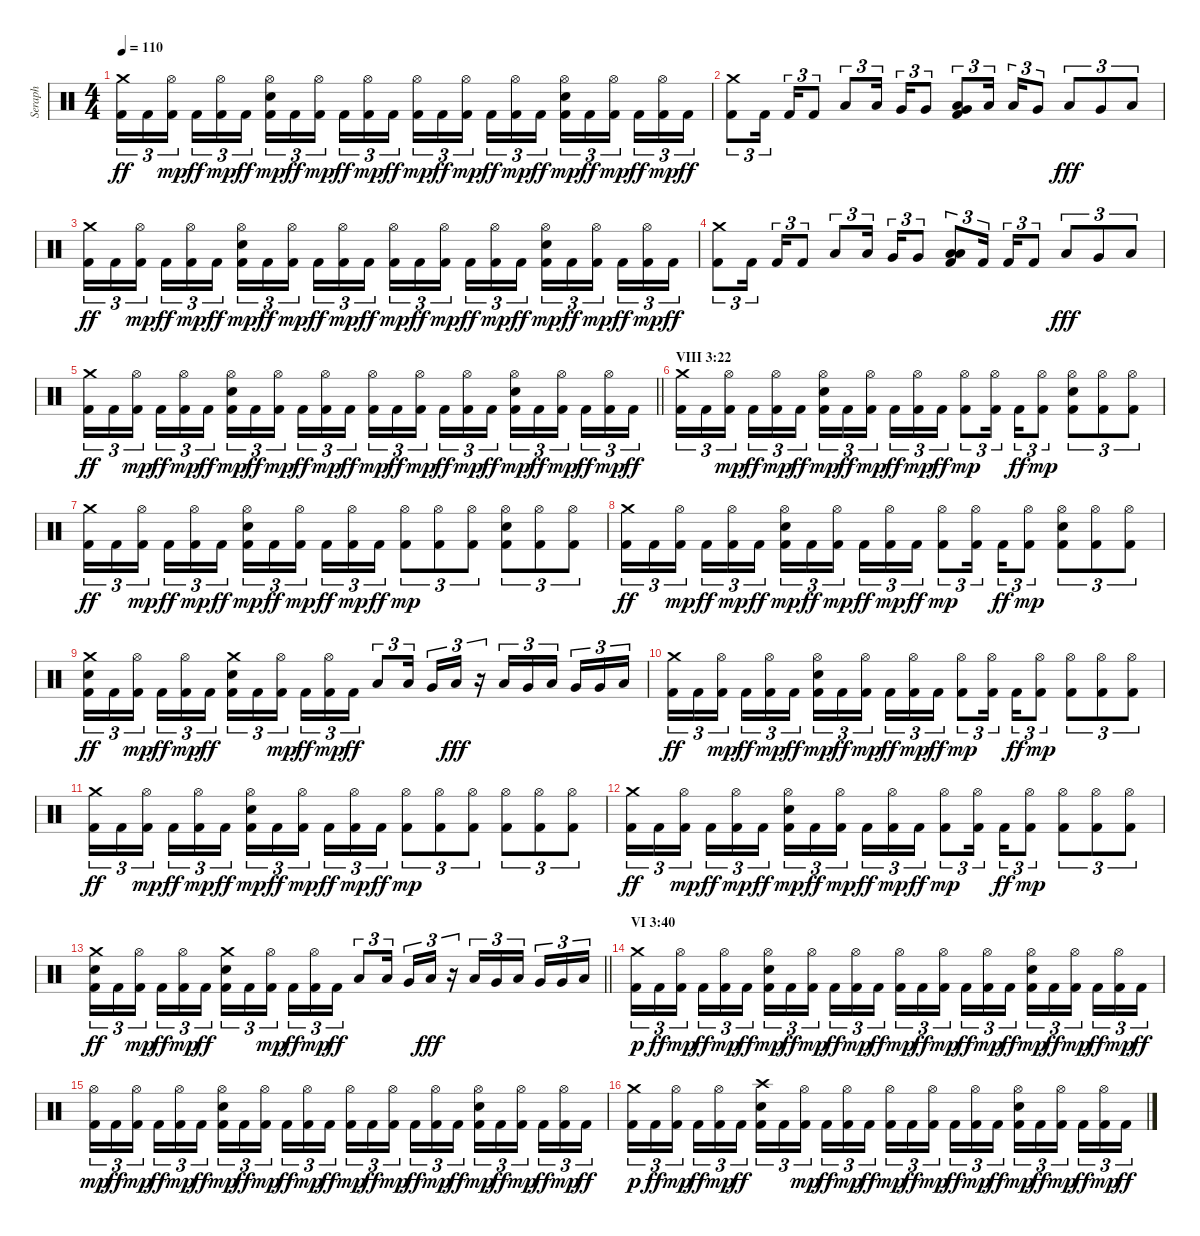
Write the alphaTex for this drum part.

\track ("Seraph" "Seraph") {instrument percussion}
\staff {score}
\articulation defaults
\ts (4 4)
\tempo 110
\clef neutral
\ks c
("Kick (hit) 2" "Crash medium (hit)").16{tu (3 2) dy ff} "Kick (hit) 2".16{tu (3 2)} ("Kick (hit) 2" "Hi-Hat (open)").16{tu (3 2) dy mp beam splitsecondary} "Kick (hit) 2".16{tu (3 2) dy ff} ("Kick (hit) 2" "Hi-Hat (open)").16{tu (3 2) dy mp} "Kick (hit) 2".16{tu (3 2) dy ff} ("Kick (hit) 2" "Electric Snare (hit)" "Hi-Hat (open)").16{tu (3 2) dy mp} "Kick (hit) 2".16{tu (3 2) dy ff} ("Kick (hit) 2" "Hi-Hat (open)").16{tu (3 2) dy mp beam splitsecondary} "Kick (hit) 2".16{tu (3 2) dy ff} ("Kick (hit) 2" "Hi-Hat (open)").16{tu (3 2) dy mp} "Kick (hit) 2".16{tu (3 2) dy ff} ("Kick (hit) 2" "Hi-Hat (open)").16{tu (3 2) dy mp} "Kick (hit) 2".16{tu (3 2) dy ff} ("Kick (hit) 2" "Hi-Hat (open)").16{tu (3 2) dy mp beam splitsecondary} "Kick (hit) 2".16{tu (3 2) dy ff} ("Kick (hit) 2" "Hi-Hat (open)").16{tu (3 2) dy mp} "Kick (hit) 2".16{tu (3 2) dy ff} ("Kick (hit) 2" "Electric Snare (hit)" "Hi-Hat (open)").16{tu (3 2) dy mp} "Kick (hit) 2".16{tu (3 2) dy ff} ("Kick (hit) 2" "Hi-Hat (open)").16{tu (3 2) dy mp beam splitsecondary} "Kick (hit) 2".16{tu (3 2) dy ff} ("Kick (hit) 2" "Hi-Hat (open)").16{tu (3 2) dy mp} "Kick (hit) 2".16{tu (3 2) dy ff} |
("Kick (hit) 2" "Crash medium (hit)").8{tu (3 2)} "Kick (hit) 2".16{tu (3 2) beam splitsecondary} "Kick (hit) 2".16{tu (3 2)} "Kick (hit) 2".8{tu (3 2)} "Low Tom (hit)".8{tu (3 2)} "Low Tom (hit)".16{tu (3 2) beam splitsecondary} "Very Low Tom (hit)".16{tu (3 2)} "Very Low Tom (hit)".8{tu (3 2)} ("Kick (hit) 2" "Very Low Tom (hit)" "Low Tom (hit)").8{tu (3 2)} "Low Tom (hit)".16{tu (3 2) beam splitsecondary} "Low Tom (hit)".16{tu (3 2)} "Very Low Tom (hit)".8{tu (3 2)} "Low Tom (hit)".8{tu (3 2) dy fff} "Very Low Tom (hit)".8{tu (3 2)} "Low Floor Tom (hit)".8{tu (3 2)} |
("Kick (hit) 2" "Crash medium (hit)").16{tu (3 2) dy ff} "Kick (hit) 2".16{tu (3 2)} ("Kick (hit) 2" "Hi-Hat (open)").16{tu (3 2) dy mp beam splitsecondary} "Kick (hit) 2".16{tu (3 2) dy ff} ("Kick (hit) 2" "Hi-Hat (open)").16{tu (3 2) dy mp} "Kick (hit) 2".16{tu (3 2) dy ff} ("Kick (hit) 2" "Electric Snare (hit)" "Hi-Hat (open)").16{tu (3 2) dy mp} "Kick (hit) 2".16{tu (3 2) dy ff} ("Kick (hit) 2" "Hi-Hat (open)").16{tu (3 2) dy mp beam splitsecondary} "Kick (hit) 2".16{tu (3 2) dy ff} ("Kick (hit) 2" "Hi-Hat (open)").16{tu (3 2) dy mp} "Kick (hit) 2".16{tu (3 2) dy ff} ("Kick (hit) 2" "Hi-Hat (open)").16{tu (3 2) dy mp} "Kick (hit) 2".16{tu (3 2) dy ff} ("Kick (hit) 2" "Hi-Hat (open)").16{tu (3 2) dy mp beam splitsecondary} "Kick (hit) 2".16{tu (3 2) dy ff} ("Kick (hit) 2" "Hi-Hat (open)").16{tu (3 2) dy mp} "Kick (hit) 2".16{tu (3 2) dy ff} ("Kick (hit) 2" "Electric Snare (hit)" "Hi-Hat (open)").16{tu (3 2) dy mp} "Kick (hit) 2".16{tu (3 2) dy ff} ("Kick (hit) 2" "Hi-Hat (open)").16{tu (3 2) dy mp beam splitsecondary} "Kick (hit) 2".16{tu (3 2) dy ff} ("Kick (hit) 2" "Hi-Hat (open)").16{tu (3 2) dy mp} "Kick (hit) 2".16{tu (3 2) dy ff} |
("Kick (hit) 2" "Crash medium (hit)").8{tu (3 2)} "Kick (hit) 2".16{tu (3 2) beam splitsecondary} "Kick (hit) 2".16{tu (3 2)} "Kick (hit) 2".8{tu (3 2)} "Low Tom (hit)".8{tu (3 2)} "Low Tom (hit)".16{tu (3 2) beam splitsecondary} "Very Low Tom (hit)".16{tu (3 2)} "Very Low Tom (hit)".8{tu (3 2)} ("Kick (hit) 2" "Low Floor Tom (hit)" "Low Tom (hit)").8{tu (3 2)} "Kick (hit) 2".16{tu (3 2) beam splitsecondary} "Kick (hit) 2".16{tu (3 2)} "Kick (hit) 2".8{tu (3 2)} "Low Tom (hit)".8{tu (3 2) dy fff} "Very Low Tom (hit)".8{tu (3 2)} "Low Floor Tom (hit)".8{tu (3 2)} |
\barLineRight lightlight
("Kick (hit) 2" "Crash medium (hit)").16{tu (3 2) dy ff} "Kick (hit) 2".16{tu (3 2)} ("Kick (hit) 2" "Hi-Hat (open)").16{tu (3 2) dy mp beam splitsecondary} "Kick (hit) 2".16{tu (3 2) dy ff} ("Kick (hit) 2" "Hi-Hat (open)").16{tu (3 2) dy mp} "Kick (hit) 2".16{tu (3 2) dy ff} ("Kick (hit) 2" "Electric Snare (hit)" "Hi-Hat (open)").16{tu (3 2) dy mp} "Kick (hit) 2".16{tu (3 2) dy ff} ("Kick (hit) 2" "Hi-Hat (open)").16{tu (3 2) dy mp beam splitsecondary} "Kick (hit) 2".16{tu (3 2) dy ff} ("Kick (hit) 2" "Hi-Hat (open)").16{tu (3 2) dy mp} "Kick (hit) 2".16{tu (3 2) dy ff} ("Kick (hit) 2" "Hi-Hat (open)").16{tu (3 2) dy mp} "Kick (hit) 2".16{tu (3 2) dy ff} ("Kick (hit) 2" "Hi-Hat (open)").16{tu (3 2) dy mp beam splitsecondary} "Kick (hit) 2".16{tu (3 2) dy ff} ("Kick (hit) 2" "Hi-Hat (open)").16{tu (3 2) dy mp} "Kick (hit) 2".16{tu (3 2) dy ff} ("Kick (hit) 2" "Electric Snare (hit)" "Hi-Hat (open)").16{tu (3 2) dy mp} "Kick (hit) 2".16{tu (3 2) dy ff} ("Kick (hit) 2" "Hi-Hat (open)").16{tu (3 2) dy mp beam splitsecondary} "Kick (hit) 2".16{tu (3 2) dy ff} ("Kick (hit) 2" "Hi-Hat (open)").16{tu (3 2) dy mp} "Kick (hit) 2".16{tu (3 2) dy ff} |
\section ("" "VIII 3:22")
("Kick (hit) 2" "Crash medium (hit)").16{tu (3 2)} "Kick (hit) 2".16{tu (3 2)} ("Kick (hit) 2" "Hi-Hat (open)").16{tu (3 2) dy mp beam splitsecondary} "Kick (hit) 2".16{tu (3 2) dy ff} ("Kick (hit) 2" "Hi-Hat (open)").16{tu (3 2) dy mp} "Kick (hit) 2".16{tu (3 2) dy ff} ("Kick (hit) 2" "Electric Snare (hit)" "Hi-Hat (open)").16{tu (3 2) dy mp} "Kick (hit) 2".16{tu (3 2) dy ff} ("Kick (hit) 2" "Hi-Hat (open)").16{tu (3 2) dy mp beam splitsecondary} "Kick (hit) 2".16{tu (3 2) dy ff} ("Kick (hit) 2" "Hi-Hat (open)").16{tu (3 2) dy mp} "Kick (hit) 2".16{tu (3 2) dy ff} ("Kick (hit) 2" "Hi-Hat (open)").8{tu (3 2) dy mp} ("Kick (hit) 2" "Hi-Hat (open)").16{tu (3 2) beam splitsecondary} "Kick (hit) 2".16{tu (3 2) dy ff} ("Kick (hit) 2" "Hi-Hat (open)").8{tu (3 2) dy mp} ("Kick (hit) 2" "Electric Snare (hit)" "Hi-Hat (open)").8{tu (3 2)} ("Kick (hit) 2" "Hi-Hat (open)").8{tu (3 2)} ("Kick (hit) 2" "Hi-Hat (open)").8{tu (3 2)} |
("Kick (hit) 2" "Crash medium (hit)").16{tu (3 2) dy ff} "Kick (hit) 2".16{tu (3 2)} ("Kick (hit) 2" "Hi-Hat (open)").16{tu (3 2) dy mp beam splitsecondary} "Kick (hit) 2".16{tu (3 2) dy ff} ("Kick (hit) 2" "Hi-Hat (open)").16{tu (3 2) dy mp} "Kick (hit) 2".16{tu (3 2) dy ff} ("Kick (hit) 2" "Electric Snare (hit)" "Hi-Hat (open)").16{tu (3 2) dy mp} "Kick (hit) 2".16{tu (3 2) dy ff} ("Kick (hit) 2" "Hi-Hat (open)").16{tu (3 2) dy mp beam splitsecondary} "Kick (hit) 2".16{tu (3 2) dy ff} ("Kick (hit) 2" "Hi-Hat (open)").16{tu (3 2) dy mp} "Kick (hit) 2".16{tu (3 2) dy ff} ("Kick (hit) 2" "Hi-Hat (open)").8{tu (3 2) dy mp} ("Kick (hit) 2" "Hi-Hat (open)").8{tu (3 2)} ("Kick (hit) 2" "Hi-Hat (open)").8{tu (3 2)} ("Kick (hit) 2" "Electric Snare (hit)" "Hi-Hat (open)").8{tu (3 2)} ("Kick (hit) 2" "Hi-Hat (open)").8{tu (3 2)} ("Kick (hit) 2" "Hi-Hat (open)").8{tu (3 2)} |
("Kick (hit) 2" "Crash medium (hit)").16{tu (3 2) dy ff} "Kick (hit) 2".16{tu (3 2)} ("Kick (hit) 2" "Hi-Hat (open)").16{tu (3 2) dy mp beam splitsecondary} "Kick (hit) 2".16{tu (3 2) dy ff} ("Kick (hit) 2" "Hi-Hat (open)").16{tu (3 2) dy mp} "Kick (hit) 2".16{tu (3 2) dy ff} ("Kick (hit) 2" "Electric Snare (hit)" "Hi-Hat (open)").16{tu (3 2) dy mp} "Kick (hit) 2".16{tu (3 2) dy ff} ("Kick (hit) 2" "Hi-Hat (open)").16{tu (3 2) dy mp beam splitsecondary} "Kick (hit) 2".16{tu (3 2) dy ff} ("Kick (hit) 2" "Hi-Hat (open)").16{tu (3 2) dy mp} "Kick (hit) 2".16{tu (3 2) dy ff} ("Kick (hit) 2" "Hi-Hat (open)").8{tu (3 2) dy mp} ("Kick (hit) 2" "Hi-Hat (open)").16{tu (3 2) beam splitsecondary} "Kick (hit) 2".16{tu (3 2) dy ff} ("Kick (hit) 2" "Hi-Hat (open)").8{tu (3 2) dy mp} ("Kick (hit) 2" "Electric Snare (hit)" "Hi-Hat (open)").8{tu (3 2)} ("Kick (hit) 2" "Hi-Hat (open)").8{tu (3 2)} ("Kick (hit) 2" "Hi-Hat (open)").8{tu (3 2)} |
("Kick (hit) 2" "Electric Snare (hit)" "Crash medium (hit)").16{tu (3 2) dy ff} "Kick (hit) 2".16{tu (3 2)} ("Kick (hit) 2" "Hi-Hat (open)").16{tu (3 2) dy mp beam splitsecondary} "Kick (hit) 2".16{tu (3 2) dy ff} ("Kick (hit) 2" "Hi-Hat (open)").16{tu (3 2) dy mp} "Kick (hit) 2".16{tu (3 2) dy ff} ("Kick (hit) 2" "Electric Snare (hit)" "Crash medium (hit)").16{tu (3 2)} "Kick (hit) 2".16{tu (3 2)} ("Kick (hit) 2" "Hi-Hat (open)").16{tu (3 2) dy mp beam splitsecondary} "Kick (hit) 2".16{tu (3 2) dy ff} ("Kick (hit) 2" "Hi-Hat (open)").16{tu (3 2) dy mp} "Kick (hit) 2".16{tu (3 2) dy ff} "Low Tom (hit)".8{tu (3 2)} "Low Tom (hit)".16{tu (3 2) beam splitsecondary} "Very Low Tom (hit)".16{tu (3 2)} "Low Tom (hit)".16{tu (3 2) dy fff} r.16{tu (3 2)} "Low Tom (hit)".16{tu (3 2)} "Very Low Tom (hit)".16{tu (3 2)} "Low Tom (hit)".16{tu (3 2) beam splitsecondary} "Very Low Tom (hit)".16{tu (3 2)} "Very Low Tom (hit)".16{tu (3 2)} "Low Floor Tom (hit)".16{tu (3 2)} |
("Kick (hit) 2" "Crash medium (hit)").16{tu (3 2) dy ff} "Kick (hit) 2".16{tu (3 2)} ("Kick (hit) 2" "Hi-Hat (open)").16{tu (3 2) dy mp beam splitsecondary} "Kick (hit) 2".16{tu (3 2) dy ff} ("Kick (hit) 2" "Hi-Hat (open)").16{tu (3 2) dy mp} "Kick (hit) 2".16{tu (3 2) dy ff} ("Kick (hit) 2" "Electric Snare (hit)" "Hi-Hat (open)").16{tu (3 2) dy mp} "Kick (hit) 2".16{tu (3 2) dy ff} ("Kick (hit) 2" "Hi-Hat (open)").16{tu (3 2) dy mp beam splitsecondary} "Kick (hit) 2".16{tu (3 2) dy ff} ("Kick (hit) 2" "Hi-Hat (open)").16{tu (3 2) dy mp} "Kick (hit) 2".16{tu (3 2) dy ff} ("Kick (hit) 2" "Hi-Hat (open)").8{tu (3 2) dy mp} ("Kick (hit) 2" "Hi-Hat (open)").16{tu (3 2) beam splitsecondary} "Kick (hit) 2".16{tu (3 2) dy ff} ("Kick (hit) 2" "Hi-Hat (open)").8{tu (3 2) dy mp} ("Kick (hit) 2" "Hi-Hat (open)").8{tu (3 2)} ("Kick (hit) 2" "Hi-Hat (open)").8{tu (3 2)} ("Kick (hit) 2" "Hi-Hat (open)").8{tu (3 2)} |
("Kick (hit) 2" "Crash medium (hit)").16{tu (3 2) dy ff} "Kick (hit) 2".16{tu (3 2)} ("Kick (hit) 2" "Hi-Hat (open)").16{tu (3 2) dy mp beam splitsecondary} "Kick (hit) 2".16{tu (3 2) dy ff} ("Kick (hit) 2" "Hi-Hat (open)").16{tu (3 2) dy mp} "Kick (hit) 2".16{tu (3 2) dy ff} ("Kick (hit) 2" "Electric Snare (hit)" "Hi-Hat (open)").16{tu (3 2) dy mp} "Kick (hit) 2".16{tu (3 2) dy ff} ("Kick (hit) 2" "Hi-Hat (open)").16{tu (3 2) dy mp beam splitsecondary} "Kick (hit) 2".16{tu (3 2) dy ff} ("Kick (hit) 2" "Hi-Hat (open)").16{tu (3 2) dy mp} "Kick (hit) 2".16{tu (3 2) dy ff} ("Kick (hit) 2" "Hi-Hat (open)").8{tu (3 2) dy mp} ("Kick (hit) 2" "Hi-Hat (open)").8{tu (3 2)} ("Kick (hit) 2" "Hi-Hat (open)").8{tu (3 2)} ("Kick (hit) 2" "Hi-Hat (open)").8{tu (3 2)} ("Kick (hit) 2" "Hi-Hat (open)").8{tu (3 2)} ("Kick (hit) 2" "Hi-Hat (open)").8{tu (3 2)} |
("Kick (hit) 2" "Crash medium (hit)").16{tu (3 2) dy ff} "Kick (hit) 2".16{tu (3 2)} ("Kick (hit) 2" "Hi-Hat (open)").16{tu (3 2) dy mp beam splitsecondary} "Kick (hit) 2".16{tu (3 2) dy ff} ("Kick (hit) 2" "Hi-Hat (open)").16{tu (3 2) dy mp} "Kick (hit) 2".16{tu (3 2) dy ff} ("Kick (hit) 2" "Electric Snare (hit)" "Hi-Hat (open)").16{tu (3 2) dy mp} "Kick (hit) 2".16{tu (3 2) dy ff} ("Kick (hit) 2" "Hi-Hat (open)").16{tu (3 2) dy mp beam splitsecondary} "Kick (hit) 2".16{tu (3 2) dy ff} ("Kick (hit) 2" "Hi-Hat (open)").16{tu (3 2) dy mp} "Kick (hit) 2".16{tu (3 2) dy ff} ("Kick (hit) 2" "Hi-Hat (open)").8{tu (3 2) dy mp} ("Kick (hit) 2" "Hi-Hat (open)").16{tu (3 2) beam splitsecondary} "Kick (hit) 2".16{tu (3 2) dy ff} ("Kick (hit) 2" "Hi-Hat (open)").8{tu (3 2) dy mp} ("Kick (hit) 2" "Hi-Hat (open)").8{tu (3 2)} ("Kick (hit) 2" "Hi-Hat (open)").8{tu (3 2)} ("Kick (hit) 2" "Hi-Hat (open)").8{tu (3 2)} |
\barLineRight lightlight
("Kick (hit) 2" "Electric Snare (hit)" "Crash medium (hit)").16{tu (3 2) dy ff} "Kick (hit) 2".16{tu (3 2)} ("Kick (hit) 2" "Hi-Hat (open)").16{tu (3 2) dy mp beam splitsecondary} "Kick (hit) 2".16{tu (3 2) dy ff} ("Kick (hit) 2" "Hi-Hat (open)").16{tu (3 2) dy mp} "Kick (hit) 2".16{tu (3 2) dy ff} ("Kick (hit) 2" "Electric Snare (hit)" "Crash medium (hit)").16{tu (3 2)} "Kick (hit) 2".16{tu (3 2)} ("Kick (hit) 2" "Hi-Hat (open)").16{tu (3 2) dy mp beam splitsecondary} "Kick (hit) 2".16{tu (3 2) dy ff} ("Kick (hit) 2" "Hi-Hat (open)").16{tu (3 2) dy mp} "Kick (hit) 2".16{tu (3 2) dy ff} "Low Tom (hit)".8{tu (3 2)} "Low Tom (hit)".16{tu (3 2) beam splitsecondary} "Very Low Tom (hit)".16{tu (3 2)} "Low Tom (hit)".16{tu (3 2) dy fff} r.16{tu (3 2)} "Low Tom (hit)".16{tu (3 2)} "Very Low Tom (hit)".16{tu (3 2)} "Low Tom (hit)".16{tu (3 2) beam splitsecondary} "Very Low Tom (hit)".16{tu (3 2)} "Very Low Tom (hit)".16{tu (3 2)} "Low Floor Tom (hit)".16{tu (3 2)} |
\section ("" "VI 3:40")
("Kick (hit) 2" "Crash medium (hit)").16{tu (3 2) dy p} "Kick (hit) 2".16{tu (3 2) dy ff} ("Kick (hit) 2" "Hi-Hat (open)").16{tu (3 2) dy mp beam splitsecondary} "Kick (hit) 2".16{tu (3 2) dy ff} ("Kick (hit) 2" "Hi-Hat (open)").16{tu (3 2) dy mp} "Kick (hit) 2".16{tu (3 2) dy ff} ("Kick (hit) 2" "Electric Snare (hit)" "Hi-Hat (open)").16{tu (3 2) dy mp} "Kick (hit) 2".16{tu (3 2) dy ff} ("Kick (hit) 2" "Hi-Hat (open)").16{tu (3 2) dy mp beam splitsecondary} "Kick (hit) 2".16{tu (3 2) dy ff} ("Kick (hit) 2" "Hi-Hat (open)").16{tu (3 2) dy mp} "Kick (hit) 2".16{tu (3 2) dy ff} ("Kick (hit) 2" "Hi-Hat (open)").16{tu (3 2) dy mp} "Kick (hit) 2".16{tu (3 2) dy ff} ("Kick (hit) 2" "Hi-Hat (open)").16{tu (3 2) dy mp beam splitsecondary} "Kick (hit) 2".16{tu (3 2) dy ff} ("Kick (hit) 2" "Hi-Hat (open)").16{tu (3 2) dy mp} "Kick (hit) 2".16{tu (3 2) dy ff} ("Kick (hit) 2" "Electric Snare (hit)" "Hi-Hat (open)").16{tu (3 2) dy mp} "Kick (hit) 2".16{tu (3 2) dy ff} ("Kick (hit) 2" "Hi-Hat (open)").16{tu (3 2) dy mp beam splitsecondary} "Kick (hit) 2".16{tu (3 2) dy ff} ("Kick (hit) 2" "Hi-Hat (open)").16{tu (3 2) dy mp} "Kick (hit) 2".16{tu (3 2) dy ff} |
("Kick (hit) 2" "Hi-Hat (open)").16{tu (3 2) dy mp} "Kick (hit) 2".16{tu (3 2) dy ff} ("Kick (hit) 2" "Hi-Hat (open)").16{tu (3 2) dy mp beam splitsecondary} "Kick (hit) 2".16{tu (3 2) dy ff} ("Kick (hit) 2" "Hi-Hat (open)").16{tu (3 2) dy mp} "Kick (hit) 2".16{tu (3 2) dy ff} ("Kick (hit) 2" "Electric Snare (hit)" "Hi-Hat (open)").16{tu (3 2) dy mp} "Kick (hit) 2".16{tu (3 2) dy ff} ("Kick (hit) 2" "Hi-Hat (open)").16{tu (3 2) dy mp beam splitsecondary} "Kick (hit) 2".16{tu (3 2) dy ff} ("Kick (hit) 2" "Hi-Hat (open)").16{tu (3 2) dy mp} "Kick (hit) 2".16{tu (3 2) dy ff} ("Kick (hit) 2" "Hi-Hat (open)").16{tu (3 2) dy mp} "Kick (hit) 2".16{tu (3 2) dy ff} ("Kick (hit) 2" "Hi-Hat (open)").16{tu (3 2) dy mp beam splitsecondary} "Kick (hit) 2".16{tu (3 2) dy ff} ("Kick (hit) 2" "Hi-Hat (open)").16{tu (3 2) dy mp} "Kick (hit) 2".16{tu (3 2) dy ff} ("Kick (hit) 2" "Electric Snare (hit)" "Hi-Hat (open)").16{tu (3 2) dy mp} "Kick (hit) 2".16{tu (3 2) dy ff} ("Kick (hit) 2" "Hi-Hat (open)").16{tu (3 2) dy mp beam splitsecondary} "Kick (hit) 2".16{tu (3 2) dy ff} ("Kick (hit) 2" "Hi-Hat (open)").16{tu (3 2) dy mp} "Kick (hit) 2".16{tu (3 2) dy ff} |
("Kick (hit) 2" "Crash medium (hit)").16{tu (3 2) dy p} "Kick (hit) 2".16{tu (3 2) dy ff} ("Kick (hit) 2" "Hi-Hat (open)").16{tu (3 2) dy mp beam splitsecondary} "Kick (hit) 2".16{tu (3 2) dy ff} ("Kick (hit) 2" "Hi-Hat (open)").16{tu (3 2) dy mp} "Kick (hit) 2".16{tu (3 2) dy ff} ("Kick (hit) 2" "Electric Snare (hit)" "Crash high (hit)").16{tu (3 2)} "Kick (hit) 2".16{tu (3 2)} ("Kick (hit) 2" "Hi-Hat (open)").16{tu (3 2) dy mp beam splitsecondary} "Kick (hit) 2".16{tu (3 2) dy ff} ("Kick (hit) 2" "Hi-Hat (open)").16{tu (3 2) dy mp} "Kick (hit) 2".16{tu (3 2) dy ff} ("Kick (hit) 2" "Hi-Hat (open)").16{tu (3 2) dy mp} "Kick (hit) 2".16{tu (3 2) dy ff} ("Kick (hit) 2" "Hi-Hat (open)").16{tu (3 2) dy mp beam splitsecondary} "Kick (hit) 2".16{tu (3 2) dy ff} ("Kick (hit) 2" "Hi-Hat (open)").16{tu (3 2) dy mp} "Kick (hit) 2".16{tu (3 2) dy ff} ("Kick (hit) 2" "Electric Snare (hit)" "Hi-Hat (open)").16{tu (3 2) dy mp} "Kick (hit) 2".16{tu (3 2) dy ff} ("Kick (hit) 2" "Hi-Hat (open)").16{tu (3 2) dy mp beam splitsecondary} "Kick (hit) 2".16{tu (3 2) dy ff} ("Kick (hit) 2" "Hi-Hat (open)").16{tu (3 2) dy mp} "Kick (hit) 2".16{tu (3 2) dy ff}
